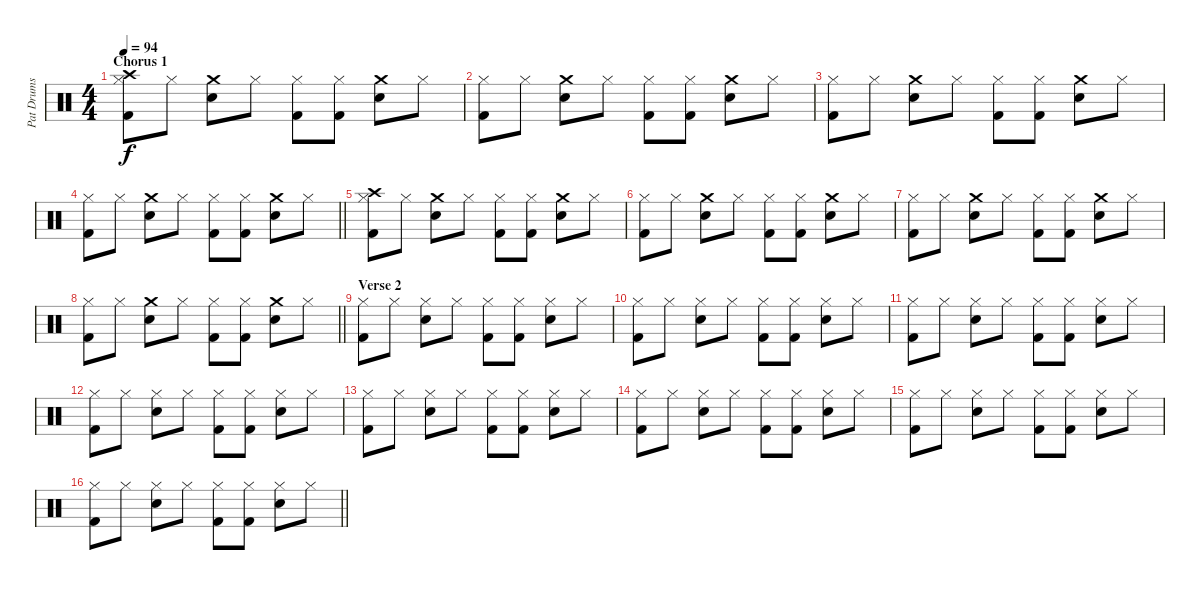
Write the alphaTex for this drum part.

\track ("Pat Drums" "Pat Drums") {instrument percussion}
\staff {score}
\articulation defaults
\ts (4 4)
\section ("" "Chorus 1")
\tempo 94
\clef neutral
\ks c
("Hi-Hat (closed)" "Kick (hit) 2" "Crash high (hit)").8{dy f} "Hi-Hat (closed)".8 ("Electric Snare (hit)" "Crash medium (hit)").8 "Hi-Hat (closed)".8 ("Hi-Hat (closed)" "Kick (hit) 2").8 ("Hi-Hat (closed)" "Kick (hit) 2").8 ("Electric Snare (hit)" "Crash medium (hit)").8 "Hi-Hat (closed)".8 |
("Hi-Hat (closed)" "Kick (hit) 2").8 "Hi-Hat (closed)".8 ("Electric Snare (hit)" "Crash medium (hit)").8 "Hi-Hat (closed)".8 ("Hi-Hat (closed)" "Kick (hit) 2").8 ("Hi-Hat (closed)" "Kick (hit) 2").8 ("Electric Snare (hit)" "Crash medium (hit)").8 "Hi-Hat (closed)".8 |
("Hi-Hat (closed)" "Kick (hit) 2").8 "Hi-Hat (closed)".8 ("Electric Snare (hit)" "Crash medium (hit)").8 "Hi-Hat (closed)".8 ("Hi-Hat (closed)" "Kick (hit) 2").8 ("Hi-Hat (closed)" "Kick (hit) 2").8 ("Electric Snare (hit)" "Crash medium (hit)").8 "Hi-Hat (closed)".8 |
\barLineRight lightlight
("Hi-Hat (closed)" "Kick (hit) 2").8 "Hi-Hat (closed)".8 ("Electric Snare (hit)" "Crash medium (hit)").8 "Hi-Hat (closed)".8 ("Hi-Hat (closed)" "Kick (hit) 2").8 ("Hi-Hat (closed)" "Kick (hit) 2").8 ("Electric Snare (hit)" "Crash medium (hit)").8 "Hi-Hat (closed)".8 |
("Hi-Hat (closed)" "Kick (hit) 2" "Crash high (hit)").8 "Hi-Hat (closed)".8 ("Electric Snare (hit)" "Crash medium (hit)").8 "Hi-Hat (closed)".8 ("Hi-Hat (closed)" "Kick (hit) 2").8 ("Hi-Hat (closed)" "Kick (hit) 2").8 ("Electric Snare (hit)" "Crash medium (hit)").8 "Hi-Hat (closed)".8 |
("Hi-Hat (closed)" "Kick (hit) 2").8 "Hi-Hat (closed)".8 ("Electric Snare (hit)" "Crash medium (hit)").8 "Hi-Hat (closed)".8 ("Hi-Hat (closed)" "Kick (hit) 2").8 ("Hi-Hat (closed)" "Kick (hit) 2").8 ("Electric Snare (hit)" "Crash medium (hit)").8 "Hi-Hat (closed)".8 |
("Hi-Hat (closed)" "Kick (hit) 2").8 "Hi-Hat (closed)".8 ("Electric Snare (hit)" "Crash medium (hit)").8 "Hi-Hat (closed)".8 ("Hi-Hat (closed)" "Kick (hit) 2").8 ("Hi-Hat (closed)" "Kick (hit) 2").8 ("Electric Snare (hit)" "Crash medium (hit)").8 "Hi-Hat (closed)".8 |
\barLineRight lightlight
("Hi-Hat (closed)" "Kick (hit) 2").8 "Hi-Hat (closed)".8 ("Electric Snare (hit)" "Crash medium (hit)").8 "Hi-Hat (closed)".8 ("Hi-Hat (closed)" "Kick (hit) 2").8 ("Hi-Hat (closed)" "Kick (hit) 2").8 ("Electric Snare (hit)" "Crash medium (hit)").8 "Hi-Hat (closed)".8 |
\section ("" "Verse 2")
("Hi-Hat (closed)" "Kick (hit) 2").8 "Hi-Hat (closed)".8 ("Electric Snare (hit)" "Hi-Hat (closed)").8 "Hi-Hat (closed)".8 ("Hi-Hat (closed)" "Kick (hit) 2").8 ("Hi-Hat (closed)" "Kick (hit) 2").8 ("Electric Snare (hit)" "Hi-Hat (closed)").8 "Hi-Hat (closed)".8 |
("Hi-Hat (closed)" "Kick (hit) 2").8 "Hi-Hat (closed)".8 ("Electric Snare (hit)" "Hi-Hat (closed)").8 "Hi-Hat (closed)".8 ("Hi-Hat (closed)" "Kick (hit) 2").8 ("Hi-Hat (closed)" "Kick (hit) 2").8 ("Electric Snare (hit)" "Hi-Hat (closed)").8 "Hi-Hat (closed)".8 |
("Hi-Hat (closed)" "Kick (hit) 2").8 "Hi-Hat (closed)".8 ("Electric Snare (hit)" "Hi-Hat (closed)").8 "Hi-Hat (closed)".8 ("Hi-Hat (closed)" "Kick (hit) 2").8 ("Hi-Hat (closed)" "Kick (hit) 2").8 ("Electric Snare (hit)" "Hi-Hat (closed)").8 "Hi-Hat (closed)".8 |
("Hi-Hat (closed)" "Kick (hit) 2").8 "Hi-Hat (closed)".8 ("Electric Snare (hit)" "Hi-Hat (closed)").8 "Hi-Hat (closed)".8 ("Hi-Hat (closed)" "Kick (hit) 2").8 ("Hi-Hat (closed)" "Kick (hit) 2").8 ("Electric Snare (hit)" "Hi-Hat (closed)").8 "Hi-Hat (closed)".8 |
("Hi-Hat (closed)" "Kick (hit) 2").8 "Hi-Hat (closed)".8 ("Electric Snare (hit)" "Hi-Hat (closed)").8 "Hi-Hat (closed)".8 ("Hi-Hat (closed)" "Kick (hit) 2").8 ("Hi-Hat (closed)" "Kick (hit) 2").8 ("Electric Snare (hit)" "Hi-Hat (closed)").8 "Hi-Hat (closed)".8 |
("Hi-Hat (closed)" "Kick (hit) 2").8 "Hi-Hat (closed)".8 ("Electric Snare (hit)" "Hi-Hat (closed)").8 "Hi-Hat (closed)".8 ("Hi-Hat (closed)" "Kick (hit) 2").8 ("Hi-Hat (closed)" "Kick (hit) 2").8 ("Electric Snare (hit)" "Hi-Hat (closed)").8 "Hi-Hat (closed)".8 |
("Hi-Hat (closed)" "Kick (hit) 2").8 "Hi-Hat (closed)".8 ("Electric Snare (hit)" "Hi-Hat (closed)").8 "Hi-Hat (closed)".8 ("Hi-Hat (closed)" "Kick (hit) 2").8 ("Hi-Hat (closed)" "Kick (hit) 2").8 ("Electric Snare (hit)" "Hi-Hat (closed)").8 "Hi-Hat (closed)".8 |
\barLineRight lightlight
("Hi-Hat (closed)" "Kick (hit) 2").8 "Hi-Hat (closed)".8 ("Electric Snare (hit)" "Hi-Hat (closed)").8 "Hi-Hat (closed)".8 ("Hi-Hat (closed)" "Kick (hit) 2").8 ("Hi-Hat (closed)" "Kick (hit) 2").8 ("Electric Snare (hit)" "Hi-Hat (closed)").8 "Hi-Hat (closed)".8
